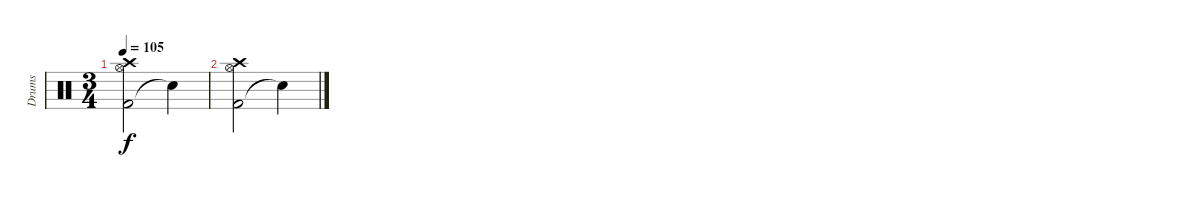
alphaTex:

\track ("Drums" "Drums") {instrument percussion}
\staff {score}
\articulation defaults
\ts (3 4)
\tempo 105
\clef neutral
\ks c
("Kick (hit) 2" "Crash high (hit)" "Hi-Hat (open)").2{dy f} "Snare (hit)"{t}.4 |
("Kick (hit) 2" "Crash high (hit)" "Hi-Hat (open)").2 "Snare (hit)"{t}.4
